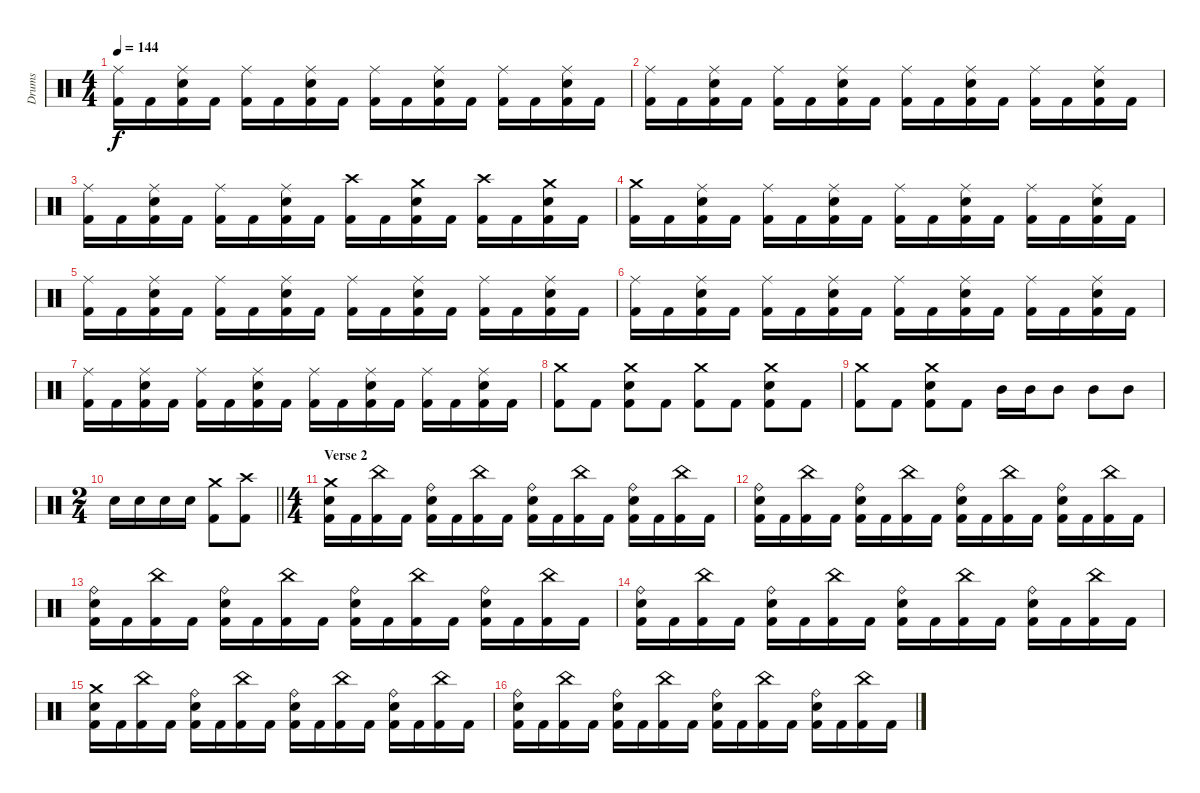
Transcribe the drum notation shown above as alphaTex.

\track ("Drums" "Drums") {instrument percussion}
\staff {score}
\articulation defaults
\ts (4 4)
\tempo 144
\clef neutral
\ks c
("Kick (hit) 2" "Ride (middle)").16{dy f} "Kick (hit) 2".16 ("Kick (hit) 2" "Snare (hit) 2" "Ride (middle)").16 "Kick (hit) 2".16 ("Kick (hit) 2" "Ride (middle)").16 "Kick (hit) 2".16 ("Kick (hit) 2" "Snare (hit) 2" "Ride (middle)").16 "Kick (hit) 2".16 ("Kick (hit) 2" "Ride (middle)").16 "Kick (hit) 2".16 ("Kick (hit) 2" "Snare (hit) 2" "Ride (middle)").16 "Kick (hit) 2".16 ("Kick (hit) 2" "Ride (middle)").16 "Kick (hit) 2".16 ("Kick (hit) 2" "Snare (hit) 2" "Ride (middle)").16 "Kick (hit) 2".16 |
("Kick (hit) 2" "Ride (middle)").16 "Kick (hit) 2".16 ("Kick (hit) 2" "Snare (hit) 2" "Ride (middle)").16 "Kick (hit) 2".16 ("Kick (hit) 2" "Ride (middle)").16 "Kick (hit) 2".16 ("Kick (hit) 2" "Snare (hit) 2" "Ride (middle)").16 "Kick (hit) 2".16 ("Kick (hit) 2" "Ride (middle)").16 "Kick (hit) 2".16 ("Kick (hit) 2" "Snare (hit) 2" "Ride (middle)").16 "Kick (hit) 2".16 ("Kick (hit) 2" "Ride (middle)").16 "Kick (hit) 2".16 ("Kick (hit) 2" "Snare (hit) 2" "Ride (middle)").16 "Kick (hit) 2".16 |
("Kick (hit) 2" "Ride (middle)").16 "Kick (hit) 2".16 ("Kick (hit) 2" "Snare (hit) 2" "Ride (middle)").16 "Kick (hit) 2".16 ("Kick (hit) 2" "Ride (middle)").16 "Kick (hit) 2".16 ("Kick (hit) 2" "Snare (hit) 2" "Ride (middle)").16 "Kick (hit) 2".16 ("Kick (hit) 2" "Crash high (hit)").16 "Kick (hit) 2".16 ("Kick (hit) 2" "Snare (hit) 2" "Crash medium (hit)").16 "Kick (hit) 2".16 ("Kick (hit) 2" "Crash high (hit)").16 "Kick (hit) 2".16 ("Kick (hit) 2" "Snare (hit) 2" "Crash medium (hit)").16 "Kick (hit) 2".16 |
("Kick (hit) 2" "Crash medium (hit)").16 "Kick (hit) 2".16 ("Kick (hit) 2" "Snare (hit) 2" "Ride (middle)").16 "Kick (hit) 2".16 ("Kick (hit) 2" "Ride (middle)").16 "Kick (hit) 2".16 ("Kick (hit) 2" "Snare (hit) 2" "Ride (middle)").16 "Kick (hit) 2".16 ("Kick (hit) 2" "Ride (middle)").16 "Kick (hit) 2".16 ("Kick (hit) 2" "Snare (hit) 2" "Ride (middle)").16 "Kick (hit) 2".16 ("Kick (hit) 2" "Ride (middle)").16 "Kick (hit) 2".16 ("Kick (hit) 2" "Snare (hit) 2" "Ride (middle)").16 "Kick (hit) 2".16 |
("Kick (hit) 2" "Ride (middle)").16 "Kick (hit) 2".16 ("Kick (hit) 2" "Snare (hit) 2" "Ride (middle)").16 "Kick (hit) 2".16 ("Kick (hit) 2" "Ride (middle)").16 "Kick (hit) 2".16 ("Kick (hit) 2" "Snare (hit) 2" "Ride (middle)").16 "Kick (hit) 2".16 ("Kick (hit) 2" "Ride (middle)").16 "Kick (hit) 2".16 ("Kick (hit) 2" "Snare (hit) 2" "Ride (middle)").16 "Kick (hit) 2".16 ("Kick (hit) 2" "Ride (middle)").16 "Kick (hit) 2".16 ("Kick (hit) 2" "Snare (hit) 2" "Ride (middle)").16 "Kick (hit) 2".16 |
("Kick (hit) 2" "Ride (middle)").16 "Kick (hit) 2".16 ("Kick (hit) 2" "Snare (hit) 2" "Ride (middle)").16 "Kick (hit) 2".16 ("Kick (hit) 2" "Ride (middle)").16 "Kick (hit) 2".16 ("Kick (hit) 2" "Snare (hit) 2" "Ride (middle)").16 "Kick (hit) 2".16 ("Kick (hit) 2" "Ride (middle)").16 "Kick (hit) 2".16 ("Kick (hit) 2" "Snare (hit) 2" "Ride (middle)").16 "Kick (hit) 2".16 ("Kick (hit) 2" "Ride (middle)").16 "Kick (hit) 2".16 ("Kick (hit) 2" "Snare (hit) 2" "Ride (middle)").16 "Kick (hit) 2".16 |
("Kick (hit) 2" "Ride (middle)").16 "Kick (hit) 2".16 ("Kick (hit) 2" "Snare (hit) 2" "Ride (middle)").16 "Kick (hit) 2".16 ("Kick (hit) 2" "Ride (middle)").16 "Kick (hit) 2".16 ("Kick (hit) 2" "Snare (hit) 2" "Ride (middle)").16 "Kick (hit) 2".16 ("Kick (hit) 2" "Ride (middle)").16 "Kick (hit) 2".16 ("Kick (hit) 2" "Snare (hit) 2" "Ride (middle)").16 "Kick (hit) 2".16 ("Kick (hit) 2" "Ride (middle)").16 "Kick (hit) 2".16 ("Kick (hit) 2" "Snare (hit) 2" "Ride (middle)").16 "Kick (hit) 2".16 |
("Kick (hit) 2" "Crash medium (hit)").8 "Kick (hit) 2".8 ("Kick (hit) 2" "Snare (hit) 2" "Crash medium (hit)").8 "Kick (hit) 2".8 ("Kick (hit) 2" "Crash medium (hit)").8 "Kick (hit) 2".8 ("Kick (hit) 2" "Snare (hit) 2" "Crash medium (hit)").8 "Kick (hit) 2".8 |
("Kick (hit) 2" "Crash medium (hit)").8 "Kick (hit) 2".8 ("Kick (hit) 2" "Snare (hit) 2" "Crash medium (hit)").8 "Kick (hit) 2".8 "Mid Tom (hit)".16 "Mid Tom (hit)".16 "Mid Tom (hit)".8 "Mid Tom (hit)".8 "Mid Tom (hit)".8 |
\ts (2 4)
\barLineRight lightlight "Snare (hit) 2".16 "Snare (hit) 2".16 "Snare (hit) 2".16 "Snare (hit) 2".16
("Kick (hit) 2" "Crash medium (hit)").8 ("Kick (hit) 2" "Crash high (hit)").8 |
\ts (4 4)
\section ("" "Verse 2")
("Kick (hit) 2" "Snare (hit) 2" "Crash medium (hit)").16 "Kick (hit) 2".16 ("Kick (hit) 2" "China (hit)").16 "Kick (hit) 2".16 ("Kick (hit) 2" "Snare (hit) 2" "Ride (bell)").16 "Kick (hit) 2".16 ("Kick (hit) 2" "China (hit)").16 "Kick (hit) 2".16 ("Kick (hit) 2" "Snare (hit) 2" "Ride (bell)").16 "Kick (hit) 2".16 ("Kick (hit) 2" "China (hit)").16 "Kick (hit) 2".16 ("Kick (hit) 2" "Snare (hit) 2" "Ride (bell)").16 "Kick (hit) 2".16 ("Kick (hit) 2" "China (hit)").16 "Kick (hit) 2".16 |
("Kick (hit) 2" "Snare (hit) 2" "Ride (bell)").16 "Kick (hit) 2".16 ("Kick (hit) 2" "China (hit)").16 "Kick (hit) 2".16 ("Kick (hit) 2" "Snare (hit) 2" "Ride (bell)").16 "Kick (hit) 2".16 ("Kick (hit) 2" "China (hit)").16 "Kick (hit) 2".16 ("Kick (hit) 2" "Snare (hit) 2" "Ride (bell)").16 "Kick (hit) 2".16 ("Kick (hit) 2" "China (hit)").16 "Kick (hit) 2".16 ("Kick (hit) 2" "Snare (hit) 2" "Ride (bell)").16 "Kick (hit) 2".16 ("Kick (hit) 2" "China (hit)").16 "Kick (hit) 2".16 |
("Kick (hit) 2" "Snare (hit) 2" "Ride (bell)").16 "Kick (hit) 2".16 ("Kick (hit) 2" "China (hit)").16 "Kick (hit) 2".16 ("Kick (hit) 2" "Snare (hit) 2" "Ride (bell)").16 "Kick (hit) 2".16 ("Kick (hit) 2" "China (hit)").16 "Kick (hit) 2".16 ("Kick (hit) 2" "Snare (hit) 2" "Ride (bell)").16 "Kick (hit) 2".16 ("Kick (hit) 2" "China (hit)").16 "Kick (hit) 2".16 ("Kick (hit) 2" "Snare (hit) 2" "Ride (bell)").16 "Kick (hit) 2".16 ("Kick (hit) 2" "China (hit)").16 "Kick (hit) 2".16 |
("Kick (hit) 2" "Snare (hit) 2" "Ride (bell)").16 "Kick (hit) 2".16 ("Kick (hit) 2" "China (hit)").16 "Kick (hit) 2".16 ("Kick (hit) 2" "Snare (hit) 2" "Ride (bell)").16 "Kick (hit) 2".16 ("Kick (hit) 2" "China (hit)").16 "Kick (hit) 2".16 ("Kick (hit) 2" "Snare (hit) 2" "Ride (bell)").16 "Kick (hit) 2".16 ("Kick (hit) 2" "China (hit)").16 "Kick (hit) 2".16 ("Kick (hit) 2" "Snare (hit) 2" "Ride (bell)").16 "Kick (hit) 2".16 ("Kick (hit) 2" "China (hit)").16 "Kick (hit) 2".16 |
("Kick (hit) 2" "Snare (hit) 2" "Crash medium (hit)").16 "Kick (hit) 2".16 ("Kick (hit) 2" "China (hit)").16 "Kick (hit) 2".16 ("Kick (hit) 2" "Snare (hit) 2" "Ride (bell)").16 "Kick (hit) 2".16 ("Kick (hit) 2" "China (hit)").16 "Kick (hit) 2".16 ("Kick (hit) 2" "Snare (hit) 2" "Ride (bell)").16 "Kick (hit) 2".16 ("Kick (hit) 2" "China (hit)").16 "Kick (hit) 2".16 ("Kick (hit) 2" "Snare (hit) 2" "Ride (bell)").16 "Kick (hit) 2".16 ("Kick (hit) 2" "China (hit)").16 "Kick (hit) 2".16 |
("Kick (hit) 2" "Snare (hit) 2" "Ride (bell)").16 "Kick (hit) 2".16 ("Kick (hit) 2" "China (hit)").16 "Kick (hit) 2".16 ("Kick (hit) 2" "Snare (hit) 2" "Ride (bell)").16 "Kick (hit) 2".16 ("Kick (hit) 2" "China (hit)").16 "Kick (hit) 2".16 ("Kick (hit) 2" "Snare (hit) 2" "Ride (bell)").16 "Kick (hit) 2".16 ("Kick (hit) 2" "China (hit)").16 "Kick (hit) 2".16 ("Kick (hit) 2" "Snare (hit) 2" "Ride (bell)").16 "Kick (hit) 2".16 ("Kick (hit) 2" "China (hit)").16 "Kick (hit) 2".16
